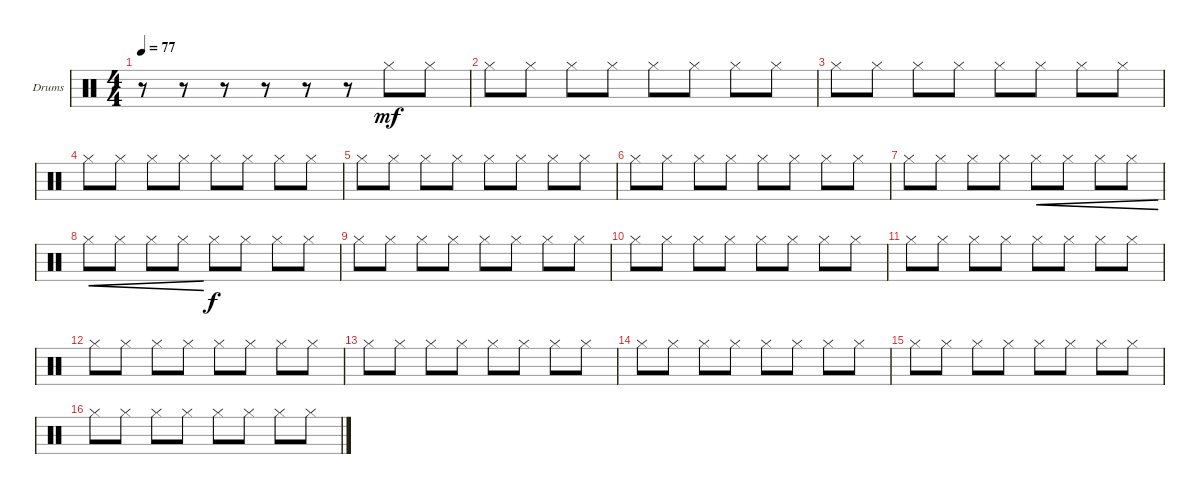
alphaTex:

\bracketExtendMode groupsimilarinstruments
\firstSystemTrackNameOrientation horizontal
\otherSystemsTrackNameOrientation horizontal
\track ("Drumkit Гурьянов" "Drums") {instrument percussion}
\staff {score}
\articulation defaults
\ts (4 4)
\tempo 77
\clef neutral
\scale
0.474178
\ks c
r.8{dy mf} r.8 r.8 r.8 r.8 r.8 "Hi-Hat (closed)".8 "Hi-Hat (closed)".8 |
\scale
0.262911 "Hi-Hat (closed)".8 "Hi-Hat (closed)".8 "Hi-Hat (closed)".8 "Hi-Hat (closed)".8 "Hi-Hat (closed)".8 "Hi-Hat (closed)".8 "Hi-Hat (closed)".8 "Hi-Hat (closed)".8 |
\scale
0.262911 "Hi-Hat (closed)".8 "Hi-Hat (closed)".8 "Hi-Hat (closed)".8 "Hi-Hat (closed)".8 "Hi-Hat (closed)".8 "Hi-Hat (closed)".8 "Hi-Hat (closed)".8 "Hi-Hat (closed)".8 |
\scale
0.333333 "Hi-Hat (closed)".8 "Hi-Hat (closed)".8 "Hi-Hat (closed)".8 "Hi-Hat (closed)".8 "Hi-Hat (closed)".8 "Hi-Hat (closed)".8 "Hi-Hat (closed)".8 "Hi-Hat (closed)".8 |
\scale
0.333333 "Hi-Hat (closed)".8 "Hi-Hat (closed)".8 "Hi-Hat (closed)".8 "Hi-Hat (closed)".8 "Hi-Hat (closed)".8 "Hi-Hat (closed)".8 "Hi-Hat (closed)".8 "Hi-Hat (closed)".8 |
\scale
0.333333 "Hi-Hat (closed)".8 "Hi-Hat (closed)".8 "Hi-Hat (closed)".8 "Hi-Hat (closed)".8 "Hi-Hat (closed)".8 "Hi-Hat (closed)".8 "Hi-Hat (closed)".8 "Hi-Hat (closed)".8 |
\scale
0.333333 "Hi-Hat (closed)".8 "Hi-Hat (closed)".8 "Hi-Hat (closed)".8 "Hi-Hat (closed)".8 "Hi-Hat (closed)".8{cre} "Hi-Hat (closed)".8{cre} "Hi-Hat (closed)".8{cre} "Hi-Hat (closed)".8{cre} |
\scale
0.333333 "Hi-Hat (closed)".8{cre} "Hi-Hat (closed)".8{cre} "Hi-Hat (closed)".8{cre} "Hi-Hat (closed)".8{cre} "Hi-Hat (closed)".8{dy f} "Hi-Hat (closed)".8 "Hi-Hat (closed)".8 "Hi-Hat (closed)".8 |
\scale
0.333333 "Hi-Hat (closed)".8 "Hi-Hat (closed)".8 "Hi-Hat (closed)".8 "Hi-Hat (closed)".8 "Hi-Hat (closed)".8 "Hi-Hat (closed)".8 "Hi-Hat (closed)".8 "Hi-Hat (closed)".8 |
\scale
0.333333 "Hi-Hat (closed)".8 "Hi-Hat (closed)".8 "Hi-Hat (closed)".8 "Hi-Hat (closed)".8 "Hi-Hat (closed)".8 "Hi-Hat (closed)".8 "Hi-Hat (closed)".8 "Hi-Hat (closed)".8 |
\scale
0.333333 "Hi-Hat (closed)".8 "Hi-Hat (closed)".8 "Hi-Hat (closed)".8 "Hi-Hat (closed)".8 "Hi-Hat (closed)".8 "Hi-Hat (closed)".8 "Hi-Hat (closed)".8 "Hi-Hat (closed)".8 |
\scale
0.333333 "Hi-Hat (closed)".8 "Hi-Hat (closed)".8 "Hi-Hat (closed)".8 "Hi-Hat (closed)".8 "Hi-Hat (closed)".8 "Hi-Hat (closed)".8 "Hi-Hat (closed)".8 "Hi-Hat (closed)".8 |
\scale
0.333333 "Hi-Hat (closed)".8 "Hi-Hat (closed)".8 "Hi-Hat (closed)".8 "Hi-Hat (closed)".8 "Hi-Hat (closed)".8 "Hi-Hat (closed)".8 "Hi-Hat (closed)".8 "Hi-Hat (closed)".8 |
\scale
0.333333 "Hi-Hat (closed)".8 "Hi-Hat (closed)".8 "Hi-Hat (closed)".8 "Hi-Hat (closed)".8 "Hi-Hat (closed)".8 "Hi-Hat (closed)".8 "Hi-Hat (closed)".8 "Hi-Hat (closed)".8 |
\scale
0.333333 "Hi-Hat (closed)".8 "Hi-Hat (closed)".8 "Hi-Hat (closed)".8 "Hi-Hat (closed)".8 "Hi-Hat (closed)".8 "Hi-Hat (closed)".8 "Hi-Hat (closed)".8 "Hi-Hat (closed)".8 |
\scale
0.333333 "Hi-Hat (closed)".8 "Hi-Hat (closed)".8 "Hi-Hat (closed)".8 "Hi-Hat (closed)".8 "Hi-Hat (closed)".8 "Hi-Hat (closed)".8 "Hi-Hat (closed)".8 "Hi-Hat (closed)".8
